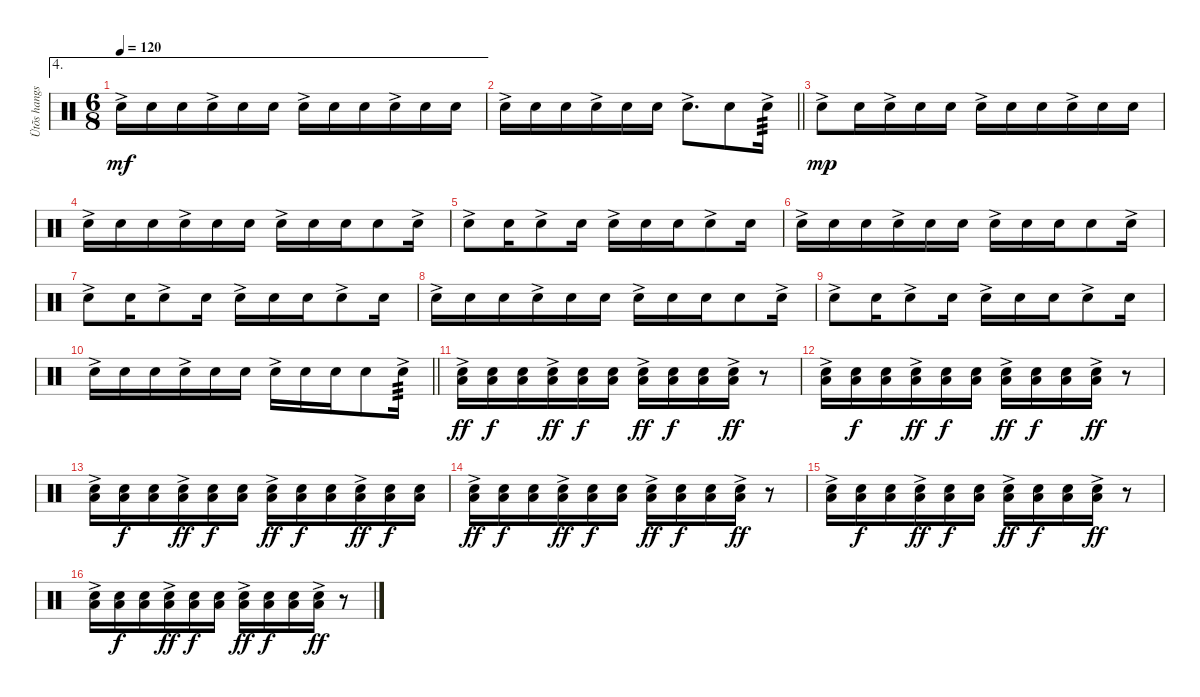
\track ("Ütõs hangszer" "Ütõs hangs") {instrument percussion}
\staff {score}
\articulation defaults
\ae 4
\ts (6 8)
\tempo 120
\clef neutral
\ks c "Snare (hit) 2"{ac}.16{dy mf} "Snare (hit) 2".16 "Snare (hit) 2".16 "Snare (hit) 2"{ac}.16 "Snare (hit) 2".16 "Snare (hit) 2".16 "Snare (hit) 2"{ac}.16 "Snare (hit) 2".16 "Snare (hit) 2".16 "Snare (hit) 2"{ac}.16 "Snare (hit) 2".16 "Snare (hit) 2".16
|
\barLineRight lightlight "Snare (hit) 2"{ac}.16 "Snare (hit) 2".16 "Snare (hit) 2".16 "Snare (hit) 2"{ac}.16 "Snare (hit) 2".16 "Snare (hit) 2".16 "Snare (hit) 2"{ac}.8{d} "Snare (hit) 2".8 "Snare (hit) 2"{ac}.16{tp 3}
|
"Snare (hit) 2"{ac}.8{dy mp} "Snare (hit) 2".16 "Snare (hit) 2"{ac}.16 "Snare (hit) 2".16 "Snare (hit) 2".16 "Snare (hit) 2"{ac}.16 "Snare (hit) 2".16 "Snare (hit) 2".16 "Snare (hit) 2"{ac}.16 "Snare (hit) 2".16 "Snare (hit) 2".16 |
"Snare (hit) 2"{ac}.16 "Snare (hit) 2".16 "Snare (hit) 2".16 "Snare (hit) 2"{ac}.16 "Snare (hit) 2".16 "Snare (hit) 2".16 "Snare (hit) 2"{ac}.16 "Snare (hit) 2".16 "Snare (hit) 2".16 "Snare (hit) 2".8 "Snare (hit) 2"{ac}.16 |
"Snare (hit) 2"{ac}.8 "Snare (hit) 2".16 "Snare (hit) 2"{ac}.8 "Snare (hit) 2".16 "Snare (hit) 2"{ac}.16 "Snare (hit) 2".16 "Snare (hit) 2".16 "Snare (hit) 2"{ac}.8 "Snare (hit) 2".16 |
"Snare (hit) 2"{ac}.16 "Snare (hit) 2".16 "Snare (hit) 2".16 "Snare (hit) 2"{ac}.16 "Snare (hit) 2".16 "Snare (hit) 2".16 "Snare (hit) 2"{ac}.16 "Snare (hit) 2".16 "Snare (hit) 2".16 "Snare (hit) 2".8 "Snare (hit) 2"{ac}.16 |
"Snare (hit) 2"{ac}.8 "Snare (hit) 2".16 "Snare (hit) 2"{ac}.8 "Snare (hit) 2".16 "Snare (hit) 2"{ac}.16 "Snare (hit) 2".16 "Snare (hit) 2".16 "Snare (hit) 2"{ac}.8 "Snare (hit) 2".16 |
"Snare (hit) 2"{ac}.16 "Snare (hit) 2".16 "Snare (hit) 2".16 "Snare (hit) 2"{ac}.16 "Snare (hit) 2".16 "Snare (hit) 2".16 "Snare (hit) 2"{ac}.16 "Snare (hit) 2".16 "Snare (hit) 2".16 "Snare (hit) 2".8 "Snare (hit) 2"{ac}.16 |
"Snare (hit) 2"{ac}.8 "Snare (hit) 2".16 "Snare (hit) 2"{ac}.8 "Snare (hit) 2".16 "Snare (hit) 2"{ac}.16 "Snare (hit) 2".16 "Snare (hit) 2".16 "Snare (hit) 2"{ac}.8 "Snare (hit) 2".16 |
\barLineRight lightlight "Snare (hit) 2"{ac}.16 "Snare (hit) 2".16 "Snare (hit) 2".16 "Snare (hit) 2"{ac}.16 "Snare (hit) 2".16 "Snare (hit) 2".16 "Snare (hit) 2"{ac}.16 "Snare (hit) 2".16 "Snare (hit) 2".16 "Snare (hit) 2".8 "Snare (hit) 2"{ac}.16{tp 3}
|
("Low Floor Tom (hit)"{ac} "Snare (hit) 2"{ac}).16{dy ff} ("Low Floor Tom (hit)" "Snare (hit) 2").16{dy f} ("Low Floor Tom (hit)" "Snare (hit) 2").16 ("Low Floor Tom (hit)"{ac} "Snare (hit) 2"{ac}).16{dy ff} ("Low Floor Tom (hit)" "Snare (hit) 2").16{dy f} ("Low Floor Tom (hit)" "Snare (hit) 2").16 ("Low Floor Tom (hit)"{ac} "Snare (hit) 2"{ac}).16{dy ff} ("Low Floor Tom (hit)" "Snare (hit) 2").16{dy f} ("Low Floor Tom (hit)" "Snare (hit) 2").16 ("Low Floor Tom (hit)"{ac} "Snare (hit) 2"{ac}).16{dy ff} r.8 |
("Low Floor Tom (hit)"{ac} "Snare (hit) 2"{ac}).16 ("Low Floor Tom (hit)" "Snare (hit) 2").16{dy f} ("Low Floor Tom (hit)" "Snare (hit) 2").16 ("Low Floor Tom (hit)"{ac} "Snare (hit) 2"{ac}).16{dy ff} ("Low Floor Tom (hit)" "Snare (hit) 2").16{dy f} ("Low Floor Tom (hit)" "Snare (hit) 2").16 ("Low Floor Tom (hit)"{ac} "Snare (hit) 2"{ac}).16{dy ff} ("Low Floor Tom (hit)" "Snare (hit) 2").16{dy f} ("Low Floor Tom (hit)" "Snare (hit) 2").16 ("Low Floor Tom (hit)"{ac} "Snare (hit) 2"{ac}).16{dy ff} r.8 |
("Low Floor Tom (hit)"{ac} "Snare (hit) 2"{ac}).16 ("Low Floor Tom (hit)" "Snare (hit) 2").16{dy f} ("Low Floor Tom (hit)" "Snare (hit) 2").16 ("Low Floor Tom (hit)"{ac} "Snare (hit) 2"{ac}).16{dy ff} ("Low Floor Tom (hit)" "Snare (hit) 2").16{dy f} ("Low Floor Tom (hit)" "Snare (hit) 2").16 ("Low Floor Tom (hit)"{ac} "Snare (hit) 2"{ac}).16{dy ff} ("Low Floor Tom (hit)" "Snare (hit) 2").16{dy f} ("Low Floor Tom (hit)" "Snare (hit) 2").16 ("Low Floor Tom (hit)"{ac} "Snare (hit) 2"{ac}).16{dy ff} ("Low Floor Tom (hit)" "Snare (hit) 2").16{dy f} ("Low Floor Tom (hit)" "Snare (hit) 2").16 |
("Low Floor Tom (hit)"{ac} "Snare (hit) 2"{ac}).16{dy ff} ("Low Floor Tom (hit)" "Snare (hit) 2").16{dy f} ("Low Floor Tom (hit)" "Snare (hit) 2").16 ("Low Floor Tom (hit)"{ac} "Snare (hit) 2"{ac}).16{dy ff} ("Low Floor Tom (hit)" "Snare (hit) 2").16{dy f} ("Low Floor Tom (hit)" "Snare (hit) 2").16 ("Low Floor Tom (hit)"{ac} "Snare (hit) 2"{ac}).16{dy ff} ("Low Floor Tom (hit)" "Snare (hit) 2").16{dy f} ("Low Floor Tom (hit)" "Snare (hit) 2").16 ("Low Floor Tom (hit)"{ac} "Snare (hit) 2"{ac}).16{dy ff} r.8 |
("Low Floor Tom (hit)"{ac} "Snare (hit) 2"{ac}).16 ("Low Floor Tom (hit)" "Snare (hit) 2").16{dy f} ("Low Floor Tom (hit)" "Snare (hit) 2").16 ("Low Floor Tom (hit)"{ac} "Snare (hit) 2"{ac}).16{dy ff} ("Low Floor Tom (hit)" "Snare (hit) 2").16{dy f} ("Low Floor Tom (hit)" "Snare (hit) 2").16 ("Low Floor Tom (hit)"{ac} "Snare (hit) 2"{ac}).16{dy ff} ("Low Floor Tom (hit)" "Snare (hit) 2").16{dy f} ("Low Floor Tom (hit)" "Snare (hit) 2").16 ("Low Floor Tom (hit)"{ac} "Snare (hit) 2"{ac}).16{dy ff} r.8 |
("Low Floor Tom (hit)"{ac} "Snare (hit) 2"{ac}).16 ("Low Floor Tom (hit)" "Snare (hit) 2").16{dy f} ("Low Floor Tom (hit)" "Snare (hit) 2").16 ("Low Floor Tom (hit)"{ac} "Snare (hit) 2"{ac}).16{dy ff} ("Low Floor Tom (hit)" "Snare (hit) 2").16{dy f} ("Low Floor Tom (hit)" "Snare (hit) 2").16 ("Low Floor Tom (hit)"{ac} "Snare (hit) 2"{ac}).16{dy ff} ("Low Floor Tom (hit)" "Snare (hit) 2").16{dy f} ("Low Floor Tom (hit)" "Snare (hit) 2").16 ("Low Floor Tom (hit)"{ac} "Snare (hit) 2"{ac}).16{dy ff} r.8
